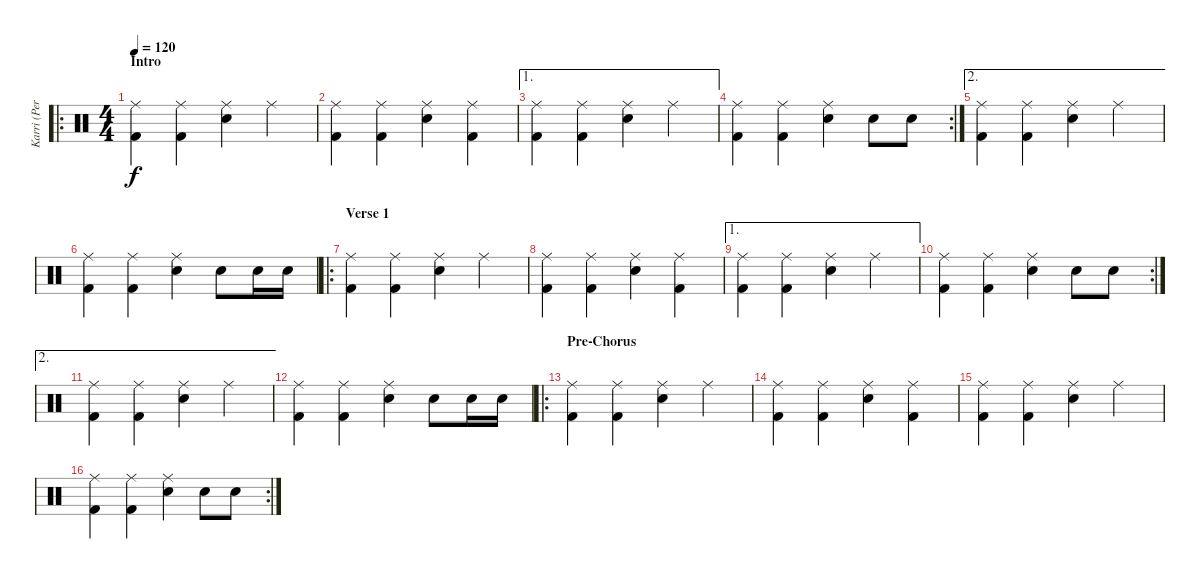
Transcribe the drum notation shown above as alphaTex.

\track ("Karri (Percussion)" "Karri (Per") {instrument percussion}
\staff {score}
\articulation defaults
\ro
\ts (4 4)
\section ("" "Intro")
\tempo 120
\clef neutral
\ks c
("Ride (middle)" "Kick (hit) 2").4{dy f} ("Ride (middle)" "Kick (hit) 2").4 ("Ride (middle)" "Snare (hit) 2").4 "Ride (middle)".4 |
("Ride (middle)" "Kick (hit) 2").4 ("Ride (middle)" "Kick (hit) 2").4 ("Ride (middle)" "Snare (hit) 2").4 ("Ride (middle)" "Kick (hit) 2").4 |
\ae 1
("Ride (middle)" "Kick (hit) 2").4 ("Ride (middle)" "Kick (hit) 2").4 ("Ride (middle)" "Snare (hit) 2").4 "Ride (middle)".4 |
\rc 2
("Ride (middle)" "Kick (hit) 2").4 ("Ride (middle)" "Kick (hit) 2").4 ("Ride (middle)" "Snare (hit) 2").4 "Snare (hit) 2".8 "Snare (hit) 2".8 |
\ae 2
("Ride (middle)" "Kick (hit) 2").4 ("Ride (middle)" "Kick (hit) 2").4 ("Ride (middle)" "Snare (hit) 2").4 "Ride (middle)".4 |
("Ride (middle)" "Kick (hit) 2").4 ("Ride (middle)" "Kick (hit) 2").4 ("Ride (middle)" "Snare (hit) 2").4 "Snare (hit) 2".8 "Snare (hit) 2".16 "Snare (hit) 2".16 |
\ro
\section ("" "Verse 1")
("Ride (middle)" "Kick (hit) 2").4 ("Ride (middle)" "Kick (hit) 2").4 ("Ride (middle)" "Snare (hit) 2").4 "Ride (middle)".4 |
("Ride (middle)" "Kick (hit) 2").4 ("Ride (middle)" "Kick (hit) 2").4 ("Ride (middle)" "Snare (hit) 2").4 ("Ride (middle)" "Kick (hit) 2").4 |
\ae 1
("Ride (middle)" "Kick (hit) 2").4 ("Ride (middle)" "Kick (hit) 2").4 ("Ride (middle)" "Snare (hit) 2").4 "Ride (middle)".4 |
\rc 2
("Ride (middle)" "Kick (hit) 2").4 ("Ride (middle)" "Kick (hit) 2").4 ("Ride (middle)" "Snare (hit) 2").4 "Snare (hit) 2".8 "Snare (hit) 2".8 |
\ae 2
("Ride (middle)" "Kick (hit) 2").4 ("Ride (middle)" "Kick (hit) 2").4 ("Ride (middle)" "Snare (hit) 2").4 "Ride (middle)".4 |
("Ride (middle)" "Kick (hit) 2").4 ("Ride (middle)" "Kick (hit) 2").4 ("Ride (middle)" "Snare (hit) 2").4 "Snare (hit) 2".8 "Snare (hit) 2".16 "Snare (hit) 2".16 |
\ro
\section ("" "Pre-Chorus")
("Ride (middle)" "Kick (hit) 2").4 ("Ride (middle)" "Kick (hit) 2").4 ("Ride (middle)" "Snare (hit) 2").4 "Ride (middle)".4 |
("Ride (middle)" "Kick (hit) 2").4 ("Ride (middle)" "Kick (hit) 2").4 ("Ride (middle)" "Snare (hit) 2").4 ("Ride (middle)" "Kick (hit) 2").4 |
("Ride (middle)" "Kick (hit) 2").4 ("Ride (middle)" "Kick (hit) 2").4 ("Ride (middle)" "Snare (hit) 2").4 "Ride (middle)".4 |
\rc 2
("Ride (middle)" "Kick (hit) 2").4 ("Ride (middle)" "Kick (hit) 2").4 ("Ride (middle)" "Snare (hit) 2").4 "Snare (hit) 2".8 "Snare (hit) 2".8
